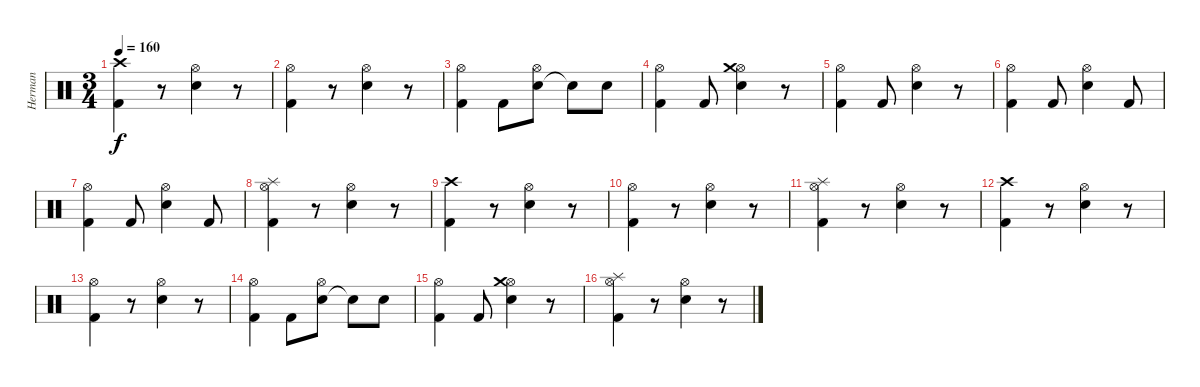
\track ("Herman" "Herman") {instrument percussion}
\staff {score}
\articulation defaults
\ts (3 4)
\tempo 160
\clef neutral
\ks c
("Kick (hit) 2" "Crash high (hit)").4{dy f} r.8 ("Electric Snare (hit)" "Hi-Hat (open)").4 r.8 |
("Kick (hit) 2" "Hi-Hat (open)").4 r.8 ("Electric Snare (hit)" "Hi-Hat (open)").4 r.8 |
("Kick (hit) 2" "Hi-Hat (open)").4 "Kick (hit) 2".8 ("Electric Snare (hit)" "Hi-Hat (open)").8 "Snare (hit)"{t}.8 "Electric Snare (hit)".8 |
("Kick (hit) 2" "Hi-Hat (open)").4 "Kick (hit) 2".8 ("Electric Snare (hit)" "Hi-Hat (open)" "Crash medium (hit)").4 r.8 |
("Kick (hit) 2" "Hi-Hat (open)").4 "Kick (hit) 2".8 ("Electric Snare (hit)" "Hi-Hat (open)").4 r.8 |
("Kick (hit) 2" "Hi-Hat (open)").4 "Kick (hit) 2".8 ("Electric Snare (hit)" "Hi-Hat (open)").4 "Kick (hit) 2".8 |
("Kick (hit) 2" "Hi-Hat (open)").4 "Kick (hit) 2".8 ("Electric Snare (hit)" "Hi-Hat (open)").4 "Kick (hit) 2".8 |
("Kick (hit) 2" "Hi-Hat (open)" "Splash (hit)").4 r.8 ("Electric Snare (hit)" "Hi-Hat (open)").4 r.8 |
("Kick (hit) 2" "Crash high (hit)").4 r.8 ("Electric Snare (hit)" "Hi-Hat (open)").4 r.8 |
("Kick (hit) 2" "Hi-Hat (open)").4 r.8 ("Electric Snare (hit)" "Hi-Hat (open)").4 r.8 |
("Kick (hit) 2" "Hi-Hat (open)" "Splash (hit)").4 r.8 ("Electric Snare (hit)" "Hi-Hat (open)").4 r.8 |
("Kick (hit) 2" "Crash high (hit)").4 r.8 ("Electric Snare (hit)" "Hi-Hat (open)").4 r.8 |
("Kick (hit) 2" "Hi-Hat (open)").4 r.8 ("Electric Snare (hit)" "Hi-Hat (open)").4 r.8 |
("Kick (hit) 2" "Hi-Hat (open)").4 "Kick (hit) 2".8 ("Electric Snare (hit)" "Hi-Hat (open)").8 "Snare (hit)"{t}.8 "Electric Snare (hit)".8 |
("Kick (hit) 2" "Hi-Hat (open)").4 "Kick (hit) 2".8 ("Electric Snare (hit)" "Hi-Hat (open)" "Crash medium (hit)").4 r.8 |
("Kick (hit) 2" "Hi-Hat (open)" "Splash (hit)").4 r.8 ("Electric Snare (hit)" "Hi-Hat (open)").4 r.8
